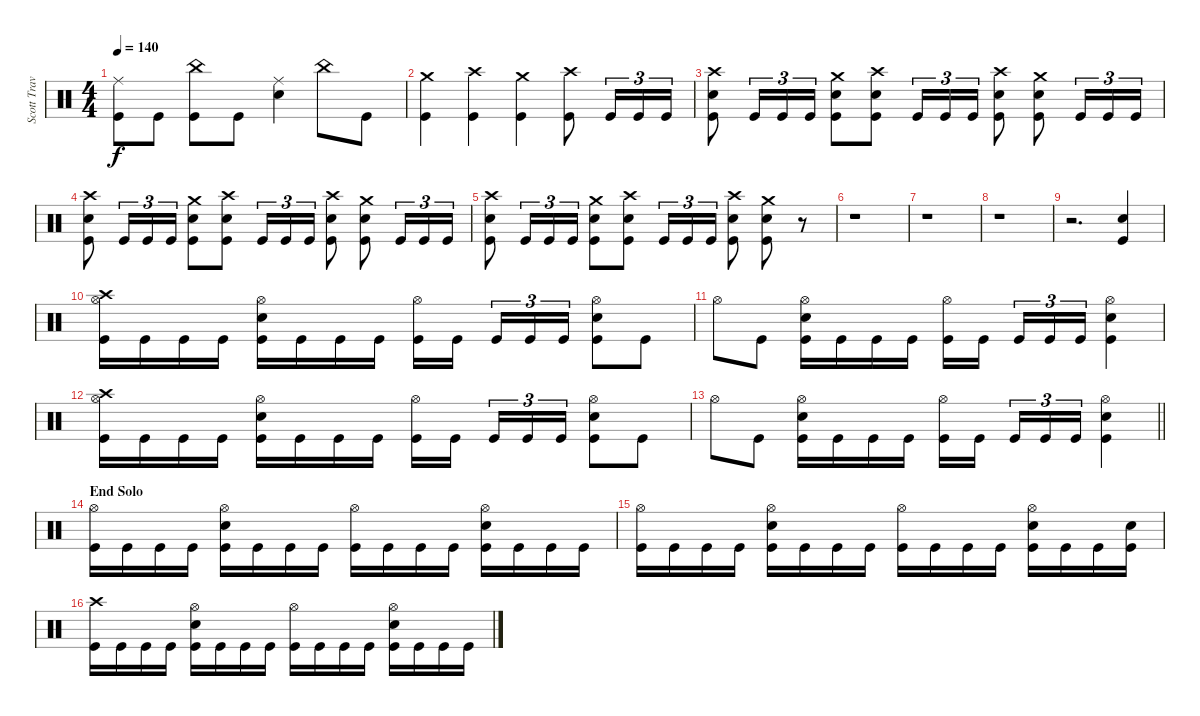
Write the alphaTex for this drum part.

\track ("Scott Travis" "Scott Trav") {instrument percussion}
\staff {score}
\articulation defaults
\ts (4 4)
\tempo 140
\clef neutral
\ks c
("Ride (middle)" "Kick (hit)").8{dy f} "Kick (hit)".8 ("China (hit)" "Kick (hit)").8 "Kick (hit)".8 ("Ride (middle)" "Snare (hit) 2").4 "China (hit)".8 "Kick (hit)".8 |
("Crash medium (hit)" "Kick (hit)").4 ("Crash high (hit)" "Kick (hit)").4 ("Crash medium (hit)" "Kick (hit)").4 ("Crash high (hit)" "Kick (hit)").8 "Kick (hit)".16{tu (3 2)} "Kick (hit)".16{tu (3 2)} "Kick (hit)".16{tu (3 2)} |
("Crash high (hit)" "Snare (hit) 2" "Kick (hit)").8 "Kick (hit)".16{tu (3 2)} "Kick (hit)".16{tu (3 2)} "Kick (hit)".16{tu (3 2)} ("Crash medium (hit)" "Snare (hit) 2" "Kick (hit)").8 ("Crash high (hit)" "Snare (hit) 2" "Kick (hit)").8 "Kick (hit)".16{tu (3 2)} "Kick (hit)".16{tu (3 2)} "Kick (hit)".16{tu (3 2)} ("Crash high (hit)" "Snare (hit) 2" "Kick (hit)").8 ("Crash medium (hit)" "Snare (hit) 2" "Kick (hit)").8 "Kick (hit)".16{tu (3 2)} "Kick (hit)".16{tu (3 2)} "Kick (hit)".16{tu (3 2)} |
("Crash high (hit)" "Snare (hit) 2" "Kick (hit)").8 "Kick (hit)".16{tu (3 2)} "Kick (hit)".16{tu (3 2)} "Kick (hit)".16{tu (3 2)} ("Crash medium (hit)" "Snare (hit) 2" "Kick (hit)").8 ("Crash high (hit)" "Snare (hit) 2" "Kick (hit)").8 "Kick (hit)".16{tu (3 2)} "Kick (hit)".16{tu (3 2)} "Kick (hit)".16{tu (3 2)} ("Crash high (hit)" "Snare (hit) 2" "Kick (hit)").8 ("Crash medium (hit)" "Snare (hit) 2" "Kick (hit)").8 "Kick (hit)".16{tu (3 2)} "Kick (hit)".16{tu (3 2)} "Kick (hit)".16{tu (3 2)} |
("Crash high (hit)" "Snare (hit) 2" "Kick (hit)").8 "Kick (hit)".16{tu (3 2)} "Kick (hit)".16{tu (3 2)} "Kick (hit)".16{tu (3 2)} ("Crash medium (hit)" "Snare (hit) 2" "Kick (hit)").8 ("Crash high (hit)" "Snare (hit) 2" "Kick (hit)").8 "Kick (hit)".16{tu (3 2)} "Kick (hit)".16{tu (3 2)} "Kick (hit)".16{tu (3 2)} ("Crash high (hit)" "Snare (hit) 2" "Kick (hit)").8 ("Crash medium (hit)" "Snare (hit) 2" "Kick (hit)").8 r.8 |
r.1 |
r.1 |
r.1 |
r.2{d} ("Snare (hit) 2" "Kick (hit)").4 |
("Hi-Hat (open)" "Crash high (hit)" "Kick (hit)").16 "Kick (hit)".16 "Kick (hit)".16 "Kick (hit)".16 ("Hi-Hat (open)" "Snare (hit) 2" "Kick (hit)").16 "Kick (hit)".16 "Kick (hit)".16 "Kick (hit)".16 ("Hi-Hat (open)" "Kick (hit)").16 "Kick (hit)".16{beam splitsecondary} "Kick (hit)".16{tu (3 2)} "Kick (hit)".16{tu (3 2)} "Kick (hit)".16{tu (3 2)} ("Hi-Hat (open)" "Snare (hit) 2" "Kick (hit)").8 "Kick (hit)".8 |
"Hi-Hat (open)".8 "Kick (hit)".8 ("Hi-Hat (open)" "Snare (hit) 2" "Kick (hit)").16 "Kick (hit)".16 "Kick (hit)".16 "Kick (hit)".16 ("Hi-Hat (open)" "Kick (hit)").16 "Kick (hit)".16{beam splitsecondary} "Kick (hit)".16{tu (3 2)} "Kick (hit)".16{tu (3 2)} "Kick (hit)".16{tu (3 2)} ("Hi-Hat (open)" "Snare (hit) 2" "Kick (hit)").4 |
("Hi-Hat (open)" "Crash high (hit)" "Kick (hit)").16 "Kick (hit)".16 "Kick (hit)".16 "Kick (hit)".16 ("Hi-Hat (open)" "Snare (hit) 2" "Kick (hit)").16 "Kick (hit)".16 "Kick (hit)".16 "Kick (hit)".16 ("Hi-Hat (open)" "Kick (hit)").16 "Kick (hit)".16{beam splitsecondary} "Kick (hit)".16{tu (3 2)} "Kick (hit)".16{tu (3 2)} "Kick (hit)".16{tu (3 2)} ("Hi-Hat (open)" "Snare (hit) 2" "Kick (hit)").8 "Kick (hit)".8 |
\barLineRight lightlight "Hi-Hat (open)".8 "Kick (hit)".8
("Hi-Hat (open)" "Snare (hit) 2" "Kick (hit)").16 "Kick (hit)".16 "Kick (hit)".16 "Kick (hit)".16 ("Hi-Hat (open)" "Kick (hit)").16 "Kick (hit)".16{beam splitsecondary} "Kick (hit)".16{tu (3 2)} "Kick (hit)".16{tu (3 2)} "Kick (hit)".16{tu (3 2)} ("Hi-Hat (open)" "Snare (hit) 2" "Kick (hit)").4 |
\section ("" "End Solo")
("Hi-Hat (open)" "Kick (hit)").16 "Kick (hit)".16 "Kick (hit)".16 "Kick (hit)".16 ("Hi-Hat (open)" "Snare (hit) 2" "Kick (hit)").16 "Kick (hit)".16 "Kick (hit)".16 "Kick (hit)".16 ("Hi-Hat (open)" "Kick (hit)").16 "Kick (hit)".16 "Kick (hit)".16 "Kick (hit)".16 ("Hi-Hat (open)" "Snare (hit) 2" "Kick (hit)").16 "Kick (hit)".16 "Kick (hit)".16 "Kick (hit)".16 |
("Hi-Hat (open)" "Kick (hit)").16 "Kick (hit)".16 "Kick (hit)".16 "Kick (hit)".16 ("Hi-Hat (open)" "Snare (hit) 2" "Kick (hit)").16 "Kick (hit)".16 "Kick (hit)".16 "Kick (hit)".16 ("Hi-Hat (open)" "Kick (hit)").16 "Kick (hit)".16 "Kick (hit)".16 "Kick (hit)".16 ("Hi-Hat (open)" "Snare (hit) 2" "Kick (hit)").16 "Kick (hit)".16 "Kick (hit)".16 ("Snare (hit) 2" "Kick (hit)").16 |
("Crash high (hit)" "Kick (hit)").16 "Kick (hit)".16 "Kick (hit)".16 "Kick (hit)".16 ("Hi-Hat (open)" "Snare (hit) 2" "Kick (hit)").16 "Kick (hit)".16 "Kick (hit)".16 "Kick (hit)".16 ("Hi-Hat (open)" "Kick (hit)").16 "Kick (hit)".16 "Kick (hit)".16 "Kick (hit)".16 ("Hi-Hat (open)" "Snare (hit) 2" "Kick (hit)").16 "Kick (hit)".16 "Kick (hit)".16 "Kick (hit)".16
